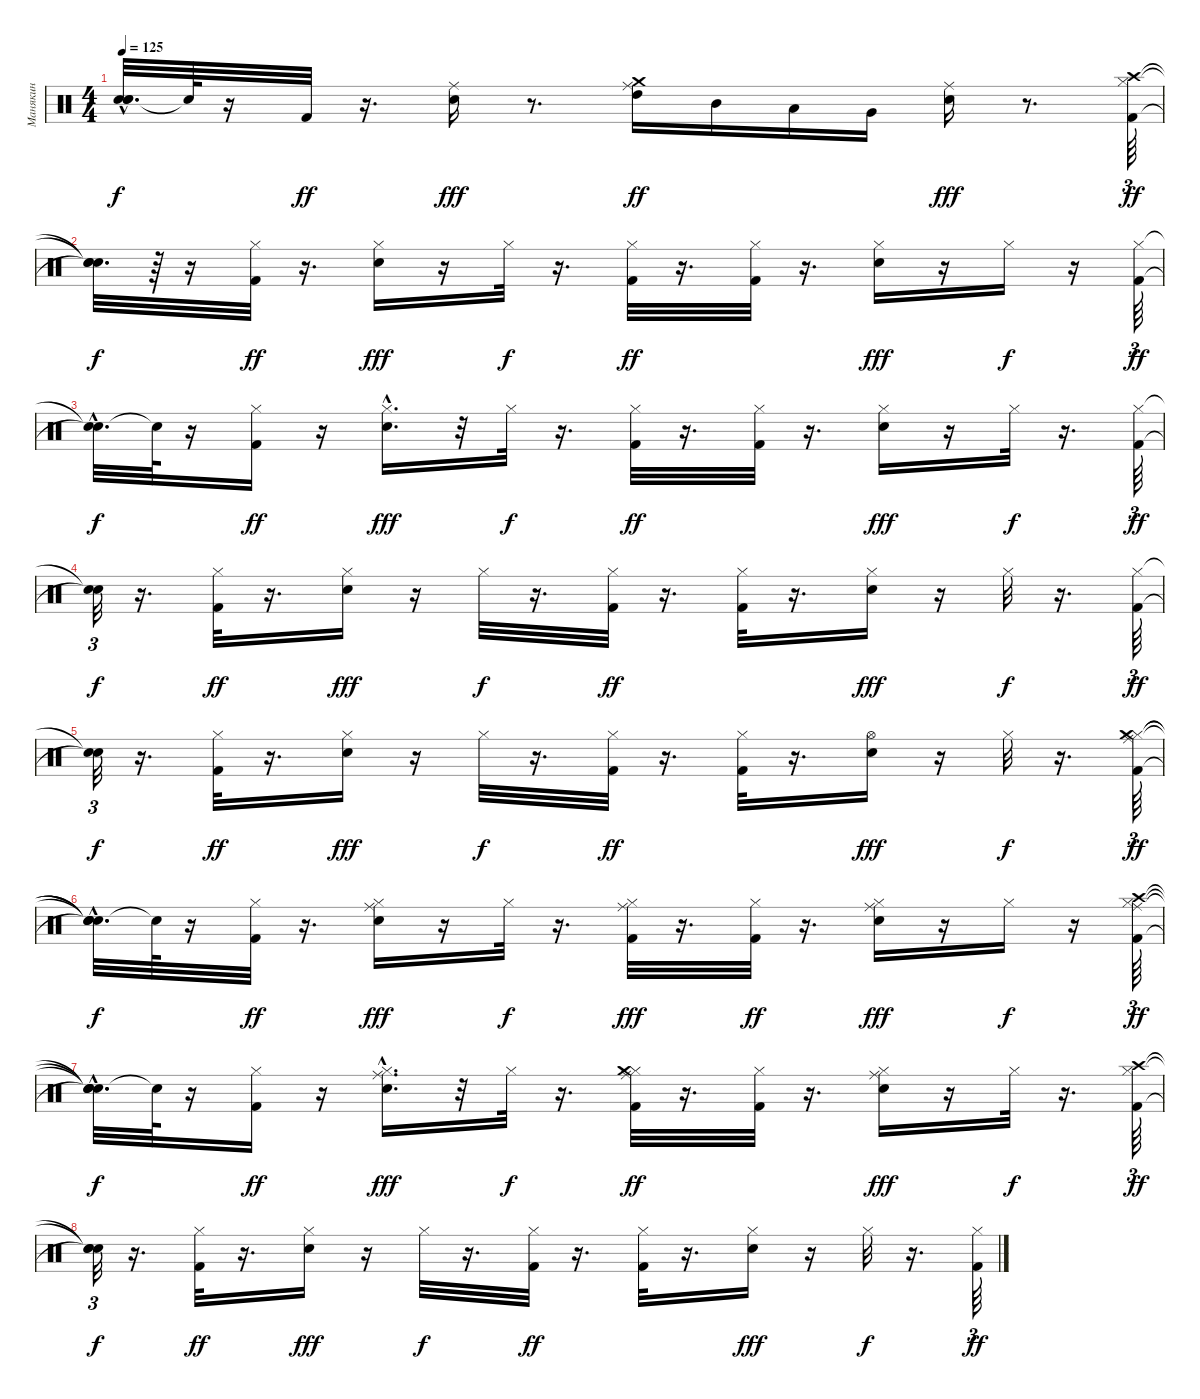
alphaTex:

\track ("Манякин" "Манякин") {instrument percussion}
\staff {score}
\articulation defaults
\ts (4 4)
\tempo 125
\clef neutral
\ks c
("Snare (hit)"{t} "Snare (hit)"{t} "Snare (hit)"{hac t}).32{d dy f} "Snare (hit)"{t}.64 r.16 "Kick (hit) 2".32{dy ff} r.16{d} ("Snare (hit) 2" "Ride (middle)").16{dy fff} r.8{d} ("High Tom (hit)" "Ride (middle)" "Crash medium (hit)").16{dy ff} "Mid Tom (hit)".16 "Low Tom (hit)".16 "Very Low Tom (hit)".16 ("Snare (hit) 2" "Ride (middle)").16{dy fff} r.8{d} ("Kick (hit) 2" "Hi-Hat (closed)" "Crash high (hit)").64{tu (3 2) dy ff} |
("Snare (hit)"{t} "Snare (hit)"{t} "Snare (hit)"{t}).32{d dy f} r.64 r.16 ("Kick (hit) 2" "Hi-Hat (closed)").32{dy ff} r.16{d} ("Snare (hit) 2" "Hi-Hat (closed)").16{dy fff} r.16 "Hi-Hat (closed)".32{dy f} r.16{d} ("Kick (hit) 2" "Hi-Hat (closed)").32{dy ff} r.16{d} ("Kick (hit) 2" "Hi-Hat (closed)").32 r.16{d} ("Snare (hit) 2" "Hi-Hat (closed)").16{dy fff} r.16 "Hi-Hat (closed)".16{dy f} r.16 ("Kick (hit) 2" "Hi-Hat (closed)").64{tu (3 2) dy ff} |
("Snare (hit)"{t} "Snare (hit)"{hac t}).32{d dy f} "Snare (hit)"{t}.64 r.16 ("Kick (hit) 2" "Hi-Hat (closed)").16{dy ff} r.16 ("Snare (hit) 2"{hac} "Hi-Hat (closed)").16{d dy fff} r.32 "Hi-Hat (closed)".32{dy f} r.16{d} ("Kick (hit) 2" "Hi-Hat (closed)").32{dy ff} r.16{d} ("Kick (hit) 2" "Hi-Hat (closed)").32 r.16{d} ("Snare (hit) 2" "Hi-Hat (closed)").16{dy fff} r.16 "Hi-Hat (closed)".32{dy f} r.16{d} ("Kick (hit) 2" "Hi-Hat (closed)").64{tu (3 2) dy ff} |
("Snare (hit)"{t} "Snare (hit)"{t}).32{tu (3 2) dy f} r.16{d} ("Kick (hit) 2" "Hi-Hat (closed)").32{dy ff} r.16{d} ("Snare (hit) 2" "Hi-Hat (closed)").16{dy fff} r.16 "Hi-Hat (closed)".32{dy f} r.16{d} ("Kick (hit) 2" "Hi-Hat (closed)").32{dy ff} r.16{d} ("Kick (hit) 2" "Hi-Hat (closed)").32 r.16{d} ("Snare (hit) 2" "Hi-Hat (closed)").16{dy fff} r.16 "Hi-Hat (closed)".32{dy f} r.16{d} ("Kick (hit) 2" "Hi-Hat (closed)").64{tu (3 2) dy ff} |
("Snare (hit)"{t} "Snare (hit)"{t}).32{tu (3 2) dy f} r.16{d} ("Kick (hit) 2" "Hi-Hat (closed)").32{dy ff} r.16{d} ("Snare (hit) 2" "Hi-Hat (closed)").16{dy fff} r.16 "Hi-Hat (closed)".32{dy f} r.16{d} ("Kick (hit) 2" "Hi-Hat (closed)").32{dy ff} r.16{d} ("Kick (hit) 2" "Hi-Hat (closed)").32 r.16{d} ("Snare (hit) 2" "Hi-Hat (open)").16{dy fff} r.16 "Hi-Hat (closed)".32{dy f} r.16{d} ("Kick (hit) 2" "Hi-Hat (closed)" "Ride (middle)" "Crash medium (hit)").64{tu (3 2) dy ff} |
("Snare (hit)"{t} "Snare (hit)"{t} "Snare (hit)"{t} "Snare (hit)"{hac t}).32{d dy f} "Snare (hit)"{t}.64 r.16 ("Kick (hit) 2" "Hi-Hat (closed)").32{dy ff} r.16{d} ("Snare (hit) 2" "Hi-Hat (closed)" "Ride (middle)").16{dy fff} r.16 "Hi-Hat (closed)".32{dy f} r.16{d} ("Kick (hit) 2" "Hi-Hat (closed)" "Ride (middle)").32{dy fff} r.16{d} ("Kick (hit) 2" "Hi-Hat (closed)").32{dy ff} r.16{d} ("Snare (hit) 2" "Hi-Hat (closed)" "Ride (middle)").16{dy fff} r.16 "Hi-Hat (closed)".16{dy f} r.16 ("Kick (hit) 2" "Hi-Hat (closed)" "Ride (middle)" "Crash high (hit)").64{tu (3 2) dy ff} |
("Snare (hit)"{t} "Snare (hit)"{hac t} "Snare (hit)"{t} "Snare (hit)"{t}).32{d dy f} "Snare (hit)"{t}.64 r.16 ("Kick (hit) 2" "Hi-Hat (closed)").16{dy ff} r.16 ("Snare (hit) 2"{hac} "Hi-Hat (closed)" "Ride (middle)").16{d dy fff} r.32 "Hi-Hat (closed)".32{dy f} r.16{d} ("Kick (hit) 2" "Hi-Hat (closed)" "Ride (middle)" "Crash medium (hit)").32{dy ff} r.16{d} ("Kick (hit) 2" "Hi-Hat (closed)").32 r.16{d} ("Snare (hit) 2" "Hi-Hat (closed)" "Ride (middle)").16{dy fff} r.16 "Hi-Hat (closed)".32{dy f} r.16{d} ("Kick (hit) 2" "Hi-Hat (closed)" "Crash high (hit)").64{tu (3 2) dy ff} |
("Snare (hit)"{t} "Snare (hit)"{t} "Snare (hit)"{t}).32{tu (3 2) dy f} r.16{d} ("Kick (hit) 2" "Hi-Hat (closed)").32{dy ff} r.16{d} ("Snare (hit) 2" "Hi-Hat (closed)").16{dy fff} r.16 "Hi-Hat (closed)".32{dy f} r.16{d} ("Kick (hit) 2" "Hi-Hat (closed)").32{dy ff} r.16{d} ("Kick (hit) 2" "Hi-Hat (closed)").32 r.16{d} ("Snare (hit) 2" "Hi-Hat (closed)").16{dy fff} r.16 "Hi-Hat (closed)".32{dy f} r.16{d} ("Kick (hit) 2" "Hi-Hat (closed)").64{tu (3 2) dy ff}
